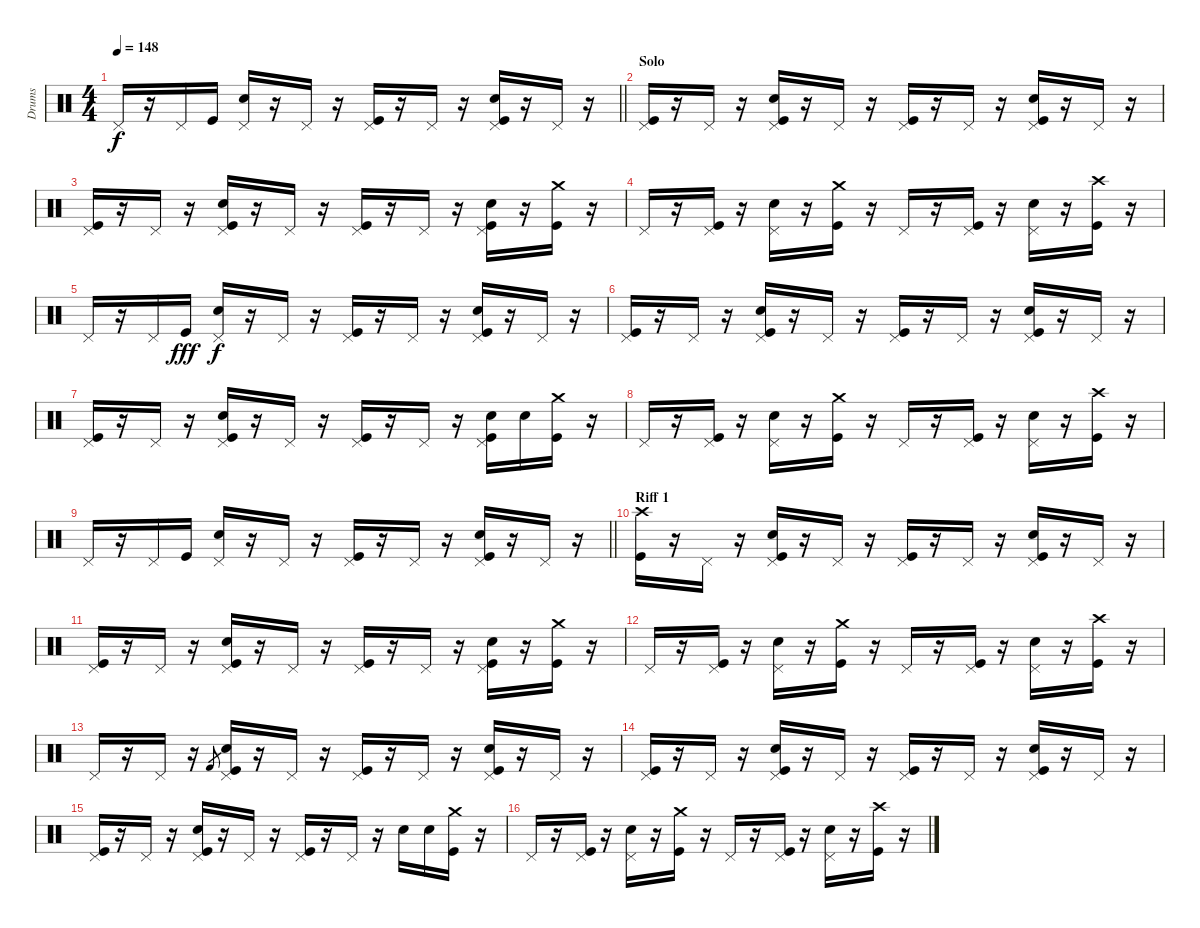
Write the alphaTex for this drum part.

\track ("Drums" "Drums") {instrument percussion}
\staff {score}
\articulation defaults
\ts (4 4)
\tempo 148
\clef neutral
\barLineRight lightlight
\ks c "Pedal Hi-Hat (hit)".16{dy f}
r.16 "Pedal Hi-Hat (hit)".16 "Kick (hit)".16 ("Pedal Hi-Hat (hit)" "Electric Snare (hit)").16 r.16 "Pedal Hi-Hat (hit)".16 r.16 ("Pedal Hi-Hat (hit)" "Kick (hit)").16 r.16 "Pedal Hi-Hat (hit)".16 r.16 ("Pedal Hi-Hat (hit)" "Electric Snare (hit)" "Kick (hit)").16 r.16 "Pedal Hi-Hat (hit)".16 r.16 |
\section ("" "Solo")
("Pedal Hi-Hat (hit)" "Kick (hit)").16 r.16 "Pedal Hi-Hat (hit)".16 r.16 ("Pedal Hi-Hat (hit)" "Electric Snare (hit)" "Kick (hit)").16 r.16 "Pedal Hi-Hat (hit)".16 r.16 ("Pedal Hi-Hat (hit)" "Kick (hit)").16 r.16 "Pedal Hi-Hat (hit)".16 r.16 ("Pedal Hi-Hat (hit)" "Electric Snare (hit)" "Kick (hit)").16 r.16 "Pedal Hi-Hat (hit)".16 r.16 |
("Pedal Hi-Hat (hit)" "Kick (hit)").16 r.16 "Pedal Hi-Hat (hit)".16 r.16 ("Pedal Hi-Hat (hit)" "Electric Snare (hit)" "Kick (hit)").16 r.16 "Pedal Hi-Hat (hit)".16 r.16 ("Pedal Hi-Hat (hit)" "Kick (hit)").16 r.16 "Pedal Hi-Hat (hit)".16 r.16 ("Pedal Hi-Hat (hit)" "Electric Snare (hit)" "Kick (hit)").16 r.16 ("Crash medium (hit)" "Kick (hit)").16 r.16 |
"Pedal Hi-Hat (hit)".16 r.16 ("Pedal Hi-Hat (hit)" "Kick (hit)").16 r.16 ("Pedal Hi-Hat (hit)" "Electric Snare (hit)").16 r.16 ("Crash medium (hit)" "Kick (hit)").16 r.16 "Pedal Hi-Hat (hit)".16 r.16 ("Pedal Hi-Hat (hit)" "Kick (hit)").16 r.16 ("Pedal Hi-Hat (hit)" "Electric Snare (hit)").16 r.16 ("Crash high (hit)" "Kick (hit)").16 r.16 |
"Pedal Hi-Hat (hit)".16 r.16 "Pedal Hi-Hat (hit)".16 "Kick (hit)".16{dy fff} ("Pedal Hi-Hat (hit)" "Electric Snare (hit)").16{dy f} r.16 "Pedal Hi-Hat (hit)".16 r.16 ("Pedal Hi-Hat (hit)" "Kick (hit)").16 r.16 "Pedal Hi-Hat (hit)".16 r.16 ("Pedal Hi-Hat (hit)" "Electric Snare (hit)" "Kick (hit)").16 r.16 "Pedal Hi-Hat (hit)".16 r.16 |
("Pedal Hi-Hat (hit)" "Kick (hit)").16 r.16 "Pedal Hi-Hat (hit)".16 r.16 ("Pedal Hi-Hat (hit)" "Electric Snare (hit)" "Kick (hit)").16 r.16 "Pedal Hi-Hat (hit)".16 r.16 ("Pedal Hi-Hat (hit)" "Kick (hit)").16 r.16 "Pedal Hi-Hat (hit)".16 r.16 ("Pedal Hi-Hat (hit)" "Electric Snare (hit)" "Kick (hit)").16 r.16 "Pedal Hi-Hat (hit)".16 r.16 |
("Pedal Hi-Hat (hit)" "Kick (hit)").16 r.16 "Pedal Hi-Hat (hit)".16 r.16 ("Pedal Hi-Hat (hit)" "Electric Snare (hit)" "Kick (hit)").16 r.16 "Pedal Hi-Hat (hit)".16 r.16 ("Pedal Hi-Hat (hit)" "Kick (hit)").16 r.16 "Pedal Hi-Hat (hit)".16 r.16 ("Pedal Hi-Hat (hit)" "Electric Snare (hit)" "Kick (hit)").16 "Electric Snare (hit)".16 ("Crash medium (hit)" "Kick (hit)").16 r.16 |
"Pedal Hi-Hat (hit)".16 r.16 ("Pedal Hi-Hat (hit)" "Kick (hit)").16 r.16 ("Pedal Hi-Hat (hit)" "Electric Snare (hit)").16 r.16 ("Crash medium (hit)" "Kick (hit)").16 r.16 "Pedal Hi-Hat (hit)".16 r.16 ("Pedal Hi-Hat (hit)" "Kick (hit)").16 r.16 ("Pedal Hi-Hat (hit)" "Electric Snare (hit)").16 r.16 ("Crash high (hit)" "Kick (hit)").16 r.16 |
\barLineRight lightlight "Pedal Hi-Hat (hit)".16
r.16 "Pedal Hi-Hat (hit)".16 "Kick (hit)".16 ("Pedal Hi-Hat (hit)" "Electric Snare (hit)").16 r.16 "Pedal Hi-Hat (hit)".16 r.16 ("Pedal Hi-Hat (hit)" "Kick (hit)").16 r.16 "Pedal Hi-Hat (hit)".16 r.16 ("Pedal Hi-Hat (hit)" "Electric Snare (hit)" "Kick (hit)").16 r.16 "Pedal Hi-Hat (hit)".16 r.16 |
\section ("" "Riff 1")
("Crash high (hit)" "Kick (hit)").16 r.16 "Pedal Hi-Hat (hit)".16 r.16 ("Pedal Hi-Hat (hit)" "Electric Snare (hit)" "Kick (hit)").16 r.16 "Pedal Hi-Hat (hit)".16 r.16 ("Pedal Hi-Hat (hit)" "Kick (hit)").16 r.16 "Pedal Hi-Hat (hit)".16 r.16 ("Pedal Hi-Hat (hit)" "Electric Snare (hit)" "Kick (hit)").16 r.16 "Pedal Hi-Hat (hit)".16 r.16 |
("Pedal Hi-Hat (hit)" "Kick (hit)").16 r.16 "Pedal Hi-Hat (hit)".16 r.16 ("Pedal Hi-Hat (hit)" "Electric Snare (hit)" "Kick (hit)").16 r.16 "Pedal Hi-Hat (hit)".16 r.16 ("Pedal Hi-Hat (hit)" "Kick (hit)").16 r.16 "Pedal Hi-Hat (hit)".16 r.16 ("Pedal Hi-Hat (hit)" "Electric Snare (hit)" "Kick (hit)").16 r.16 ("Crash medium (hit)" "Kick (hit)").16 r.16 |
"Pedal Hi-Hat (hit)".16 r.16 ("Pedal Hi-Hat (hit)" "Kick (hit)").16 r.16 ("Pedal Hi-Hat (hit)" "Electric Snare (hit)").16 r.16 ("Crash medium (hit)" "Kick (hit)").16 r.16 "Pedal Hi-Hat (hit)".16 r.16 ("Pedal Hi-Hat (hit)" "Kick (hit)").16 r.16 ("Pedal Hi-Hat (hit)" "Electric Snare (hit)").16 r.16 ("Crash high (hit)" "Kick (hit)").16 r.16 |
"Pedal Hi-Hat (hit)".16 r.16 "Pedal Hi-Hat (hit)".16 r.16 "Kick (hit) 2".8{gr} ("Pedal Hi-Hat (hit)" "Electric Snare (hit)" "Kick (hit)").16 r.16 "Pedal Hi-Hat (hit)".16 r.16 ("Pedal Hi-Hat (hit)" "Kick (hit)").16 r.16 "Pedal Hi-Hat (hit)".16 r.16 ("Pedal Hi-Hat (hit)" "Electric Snare (hit)" "Kick (hit)").16 r.16 "Pedal Hi-Hat (hit)".16 r.16 |
("Pedal Hi-Hat (hit)" "Kick (hit)").16 r.16 "Pedal Hi-Hat (hit)".16 r.16 ("Pedal Hi-Hat (hit)" "Electric Snare (hit)" "Kick (hit)").16 r.16 "Pedal Hi-Hat (hit)".16 r.16 ("Pedal Hi-Hat (hit)" "Kick (hit)").16 r.16 "Pedal Hi-Hat (hit)".16 r.16 ("Pedal Hi-Hat (hit)" "Electric Snare (hit)" "Kick (hit)").16 r.16 "Pedal Hi-Hat (hit)".16 r.16 |
("Pedal Hi-Hat (hit)" "Kick (hit)").16 r.16 "Pedal Hi-Hat (hit)".16 r.16 ("Pedal Hi-Hat (hit)" "Electric Snare (hit)" "Kick (hit)").16 r.16 "Pedal Hi-Hat (hit)".16 r.16 ("Pedal Hi-Hat (hit)" "Kick (hit)").16 r.16 "Pedal Hi-Hat (hit)".16 r.16 "Electric Snare (hit)".16 "Electric Snare (hit)".16 ("Crash medium (hit)" "Kick (hit)").16 r.16 |
"Pedal Hi-Hat (hit)".16 r.16 ("Pedal Hi-Hat (hit)" "Kick (hit)").16 r.16 ("Pedal Hi-Hat (hit)" "Electric Snare (hit)").16 r.16 ("Crash medium (hit)" "Kick (hit)").16 r.16 "Pedal Hi-Hat (hit)".16 r.16 ("Pedal Hi-Hat (hit)" "Kick (hit)").16 r.16 ("Pedal Hi-Hat (hit)" "Electric Snare (hit)").16 r.16 ("Crash high (hit)" "Kick (hit)").16 r.16
